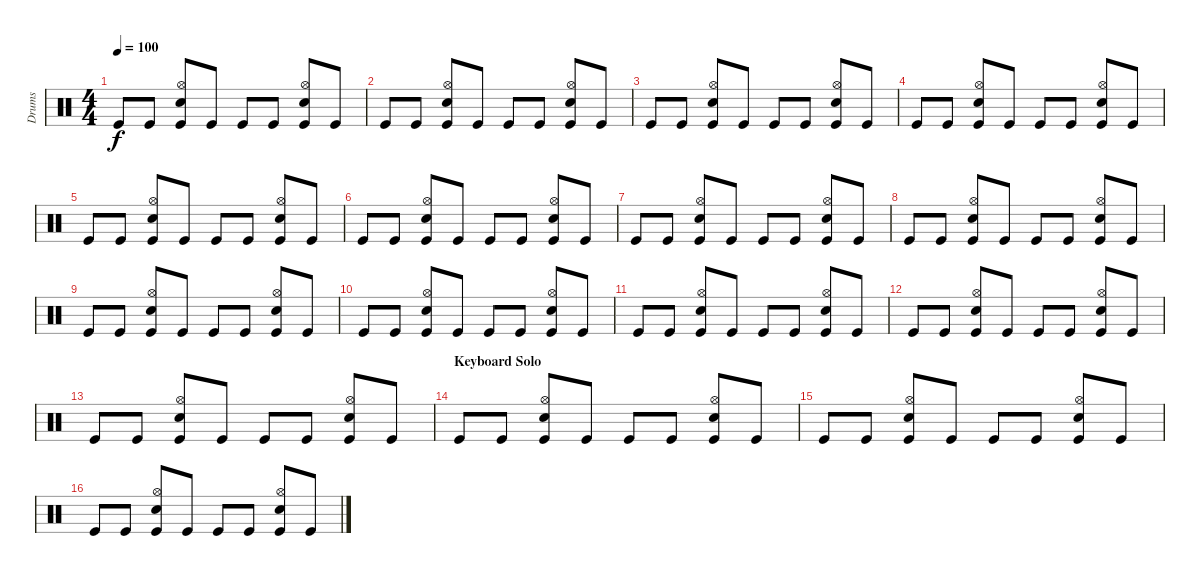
\track ("Drums" "Drums") {instrument percussion}
\staff {score}
\articulation defaults
\ts (4 4)
\tempo 100
\clef neutral
\ks c "Kick (hit)".8{dy f} "Kick (hit)".8
("Hi-Hat (open)" "Electric Snare (hit)" "Kick (hit)").8 "Kick (hit)".8 "Kick (hit)".8 "Kick (hit)".8 ("Hi-Hat (open)" "Electric Snare (hit)" "Kick (hit)").8 "Kick (hit)".8 |
"Kick (hit)".8 "Kick (hit)".8 ("Hi-Hat (open)" "Electric Snare (hit)" "Kick (hit)").8 "Kick (hit)".8 "Kick (hit)".8 "Kick (hit)".8 ("Hi-Hat (open)" "Electric Snare (hit)" "Kick (hit)").8 "Kick (hit)".8 |
"Kick (hit)".8 "Kick (hit)".8 ("Hi-Hat (open)" "Electric Snare (hit)" "Kick (hit)").8 "Kick (hit)".8 "Kick (hit)".8 "Kick (hit)".8 ("Hi-Hat (open)" "Electric Snare (hit)" "Kick (hit)").8 "Kick (hit)".8 |
"Kick (hit)".8 "Kick (hit)".8 ("Hi-Hat (open)" "Electric Snare (hit)" "Kick (hit)").8 "Kick (hit)".8 "Kick (hit)".8 "Kick (hit)".8 ("Hi-Hat (open)" "Electric Snare (hit)" "Kick (hit)").8 "Kick (hit)".8 |
"Kick (hit)".8 "Kick (hit)".8 ("Hi-Hat (open)" "Electric Snare (hit)" "Kick (hit)").8 "Kick (hit)".8 "Kick (hit)".8 "Kick (hit)".8 ("Hi-Hat (open)" "Electric Snare (hit)" "Kick (hit)").8 "Kick (hit)".8 |
"Kick (hit)".8 "Kick (hit)".8 ("Hi-Hat (open)" "Electric Snare (hit)" "Kick (hit)").8 "Kick (hit)".8 "Kick (hit)".8 "Kick (hit)".8 ("Hi-Hat (open)" "Electric Snare (hit)" "Kick (hit)").8 "Kick (hit)".8 |
"Kick (hit)".8 "Kick (hit)".8 ("Hi-Hat (open)" "Electric Snare (hit)" "Kick (hit)").8 "Kick (hit)".8 "Kick (hit)".8 "Kick (hit)".8 ("Hi-Hat (open)" "Electric Snare (hit)" "Kick (hit)").8 "Kick (hit)".8 |
"Kick (hit)".8 "Kick (hit)".8 ("Hi-Hat (open)" "Electric Snare (hit)" "Kick (hit)").8 "Kick (hit)".8 "Kick (hit)".8 "Kick (hit)".8 ("Hi-Hat (open)" "Electric Snare (hit)" "Kick (hit)").8 "Kick (hit)".8 |
"Kick (hit)".8 "Kick (hit)".8 ("Hi-Hat (open)" "Electric Snare (hit)" "Kick (hit)").8 "Kick (hit)".8 "Kick (hit)".8 "Kick (hit)".8 ("Hi-Hat (open)" "Electric Snare (hit)" "Kick (hit)").8 "Kick (hit)".8 |
"Kick (hit)".8 "Kick (hit)".8 ("Hi-Hat (open)" "Electric Snare (hit)" "Kick (hit)").8 "Kick (hit)".8 "Kick (hit)".8 "Kick (hit)".8 ("Hi-Hat (open)" "Electric Snare (hit)" "Kick (hit)").8 "Kick (hit)".8 |
"Kick (hit)".8 "Kick (hit)".8 ("Hi-Hat (open)" "Electric Snare (hit)" "Kick (hit)").8 "Kick (hit)".8 "Kick (hit)".8 "Kick (hit)".8 ("Hi-Hat (open)" "Electric Snare (hit)" "Kick (hit)").8 "Kick (hit)".8 |
"Kick (hit)".8 "Kick (hit)".8 ("Hi-Hat (open)" "Electric Snare (hit)" "Kick (hit)").8 "Kick (hit)".8 "Kick (hit)".8 "Kick (hit)".8 ("Hi-Hat (open)" "Electric Snare (hit)" "Kick (hit)").8 "Kick (hit)".8 |
"Kick (hit)".8 "Kick (hit)".8 ("Hi-Hat (open)" "Electric Snare (hit)" "Kick (hit)").8 "Kick (hit)".8 "Kick (hit)".8 "Kick (hit)".8 ("Hi-Hat (open)" "Electric Snare (hit)" "Kick (hit)").8 "Kick (hit)".8 |
\section ("" "Keyboard Solo")
"Kick (hit)".8 "Kick (hit)".8 ("Hi-Hat (open)" "Electric Snare (hit)" "Kick (hit)").8 "Kick (hit)".8 "Kick (hit)".8 "Kick (hit)".8 ("Hi-Hat (open)" "Electric Snare (hit)" "Kick (hit)").8 "Kick (hit)".8 |
"Kick (hit)".8 "Kick (hit)".8 ("Hi-Hat (open)" "Electric Snare (hit)" "Kick (hit)").8 "Kick (hit)".8 "Kick (hit)".8 "Kick (hit)".8 ("Hi-Hat (open)" "Electric Snare (hit)" "Kick (hit)").8 "Kick (hit)".8 |
"Kick (hit)".8 "Kick (hit)".8 ("Hi-Hat (open)" "Electric Snare (hit)" "Kick (hit)").8 "Kick (hit)".8 "Kick (hit)".8 "Kick (hit)".8 ("Hi-Hat (open)" "Electric Snare (hit)" "Kick (hit)").8 "Kick (hit)".8
